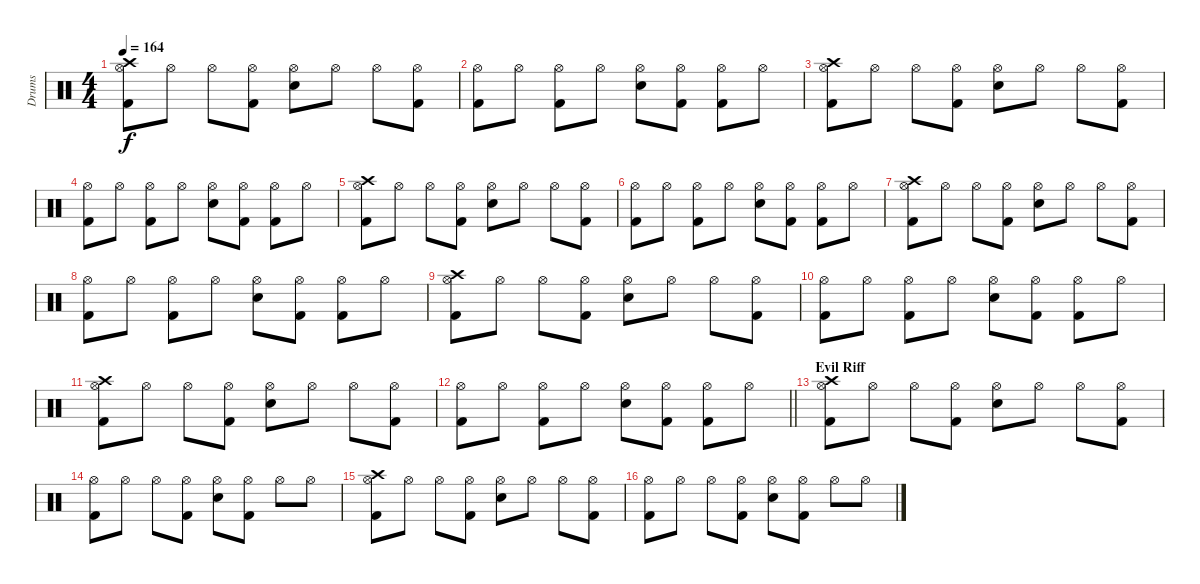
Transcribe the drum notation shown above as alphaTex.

\track ("Drums" "Drums") {instrument percussion}
\staff {score}
\articulation defaults
\ts (4 4)
\tempo 164
\clef neutral
\ks c
("Crash high (hit)" "Hi-Hat (open)" "Kick (hit) 2").8{dy f} "Hi-Hat (open)".8 "Hi-Hat (open)".8 ("Hi-Hat (open)" "Kick (hit) 2").8 ("Hi-Hat (open)" "Snare (hit) 2").8 "Hi-Hat (open)".8 "Hi-Hat (open)".8 ("Hi-Hat (open)" "Kick (hit) 2").8 |
("Hi-Hat (open)" "Kick (hit) 2").8 "Hi-Hat (open)".8 ("Hi-Hat (open)" "Kick (hit) 2").8 "Hi-Hat (open)".8 ("Hi-Hat (open)" "Snare (hit) 2").8 ("Hi-Hat (open)" "Kick (hit) 2").8 ("Hi-Hat (open)" "Kick (hit) 2").8 "Hi-Hat (open)".8 |
("Crash high (hit)" "Hi-Hat (open)" "Kick (hit) 2").8 "Hi-Hat (open)".8 "Hi-Hat (open)".8 ("Hi-Hat (open)" "Kick (hit) 2").8 ("Hi-Hat (open)" "Snare (hit) 2").8 "Hi-Hat (open)".8 "Hi-Hat (open)".8 ("Hi-Hat (open)" "Kick (hit) 2").8 |
("Hi-Hat (open)" "Kick (hit) 2").8 "Hi-Hat (open)".8 ("Hi-Hat (open)" "Kick (hit) 2").8 "Hi-Hat (open)".8 ("Hi-Hat (open)" "Snare (hit) 2").8 ("Hi-Hat (open)" "Kick (hit) 2").8 ("Hi-Hat (open)" "Kick (hit) 2").8 "Hi-Hat (open)".8 |
("Crash high (hit)" "Hi-Hat (open)" "Kick (hit) 2").8 "Hi-Hat (open)".8 "Hi-Hat (open)".8 ("Hi-Hat (open)" "Kick (hit) 2").8 ("Hi-Hat (open)" "Snare (hit) 2").8 "Hi-Hat (open)".8 "Hi-Hat (open)".8 ("Hi-Hat (open)" "Kick (hit) 2").8 |
("Hi-Hat (open)" "Kick (hit) 2").8 "Hi-Hat (open)".8 ("Hi-Hat (open)" "Kick (hit) 2").8 "Hi-Hat (open)".8 ("Hi-Hat (open)" "Snare (hit) 2").8 ("Hi-Hat (open)" "Kick (hit) 2").8 ("Hi-Hat (open)" "Kick (hit) 2").8 "Hi-Hat (open)".8 |
("Crash high (hit)" "Hi-Hat (open)" "Kick (hit) 2").8 "Hi-Hat (open)".8 "Hi-Hat (open)".8 ("Hi-Hat (open)" "Kick (hit) 2").8 ("Hi-Hat (open)" "Snare (hit) 2").8 "Hi-Hat (open)".8 "Hi-Hat (open)".8 ("Hi-Hat (open)" "Kick (hit) 2").8 |
("Hi-Hat (open)" "Kick (hit) 2").8 "Hi-Hat (open)".8 ("Hi-Hat (open)" "Kick (hit) 2").8 "Hi-Hat (open)".8 ("Hi-Hat (open)" "Snare (hit) 2").8 ("Hi-Hat (open)" "Kick (hit) 2").8 ("Hi-Hat (open)" "Kick (hit) 2").8 "Hi-Hat (open)".8 |
("Crash high (hit)" "Hi-Hat (open)" "Kick (hit) 2").8 "Hi-Hat (open)".8 "Hi-Hat (open)".8 ("Hi-Hat (open)" "Kick (hit) 2").8 ("Hi-Hat (open)" "Snare (hit) 2").8 "Hi-Hat (open)".8 "Hi-Hat (open)".8 ("Hi-Hat (open)" "Kick (hit) 2").8 |
("Hi-Hat (open)" "Kick (hit) 2").8 "Hi-Hat (open)".8 ("Hi-Hat (open)" "Kick (hit) 2").8 "Hi-Hat (open)".8 ("Hi-Hat (open)" "Snare (hit) 2").8 ("Hi-Hat (open)" "Kick (hit) 2").8 ("Hi-Hat (open)" "Kick (hit) 2").8 "Hi-Hat (open)".8 |
("Crash high (hit)" "Hi-Hat (open)" "Kick (hit) 2").8 "Hi-Hat (open)".8 "Hi-Hat (open)".8 ("Hi-Hat (open)" "Kick (hit) 2").8 ("Hi-Hat (open)" "Snare (hit) 2").8 "Hi-Hat (open)".8 "Hi-Hat (open)".8 ("Hi-Hat (open)" "Kick (hit) 2").8 |
\barLineRight lightlight
("Hi-Hat (open)" "Kick (hit) 2").8 "Hi-Hat (open)".8 ("Hi-Hat (open)" "Kick (hit) 2").8 "Hi-Hat (open)".8 ("Hi-Hat (open)" "Snare (hit) 2").8 ("Hi-Hat (open)" "Kick (hit) 2").8 ("Hi-Hat (open)" "Kick (hit) 2").8 "Hi-Hat (open)".8 |
\section ("" "Evil Riff")
("Crash high (hit)" "Hi-Hat (open)" "Kick (hit) 2").8 "Hi-Hat (open)".8 "Hi-Hat (open)".8 ("Hi-Hat (open)" "Kick (hit) 2").8 ("Hi-Hat (open)" "Snare (hit) 2").8 "Hi-Hat (open)".8 "Hi-Hat (open)".8 ("Hi-Hat (open)" "Kick (hit) 2").8 |
("Hi-Hat (open)" "Kick (hit) 2").8 "Hi-Hat (open)".8 "Hi-Hat (open)".8 ("Hi-Hat (open)" "Kick (hit) 2").8 ("Hi-Hat (open)" "Snare (hit) 2").8 ("Hi-Hat (open)" "Kick (hit) 2").8 "Hi-Hat (open)".8 "Hi-Hat (open)".8 |
("Crash high (hit)" "Hi-Hat (open)" "Kick (hit) 2").8 "Hi-Hat (open)".8 "Hi-Hat (open)".8 ("Hi-Hat (open)" "Kick (hit) 2").8 ("Hi-Hat (open)" "Snare (hit) 2").8 "Hi-Hat (open)".8 "Hi-Hat (open)".8 ("Hi-Hat (open)" "Kick (hit) 2").8 |
("Hi-Hat (open)" "Kick (hit) 2").8 "Hi-Hat (open)".8 "Hi-Hat (open)".8 ("Hi-Hat (open)" "Kick (hit) 2").8 ("Hi-Hat (open)" "Snare (hit) 2").8 ("Hi-Hat (open)" "Kick (hit) 2").8 "Hi-Hat (open)".8 "Hi-Hat (open)".8
